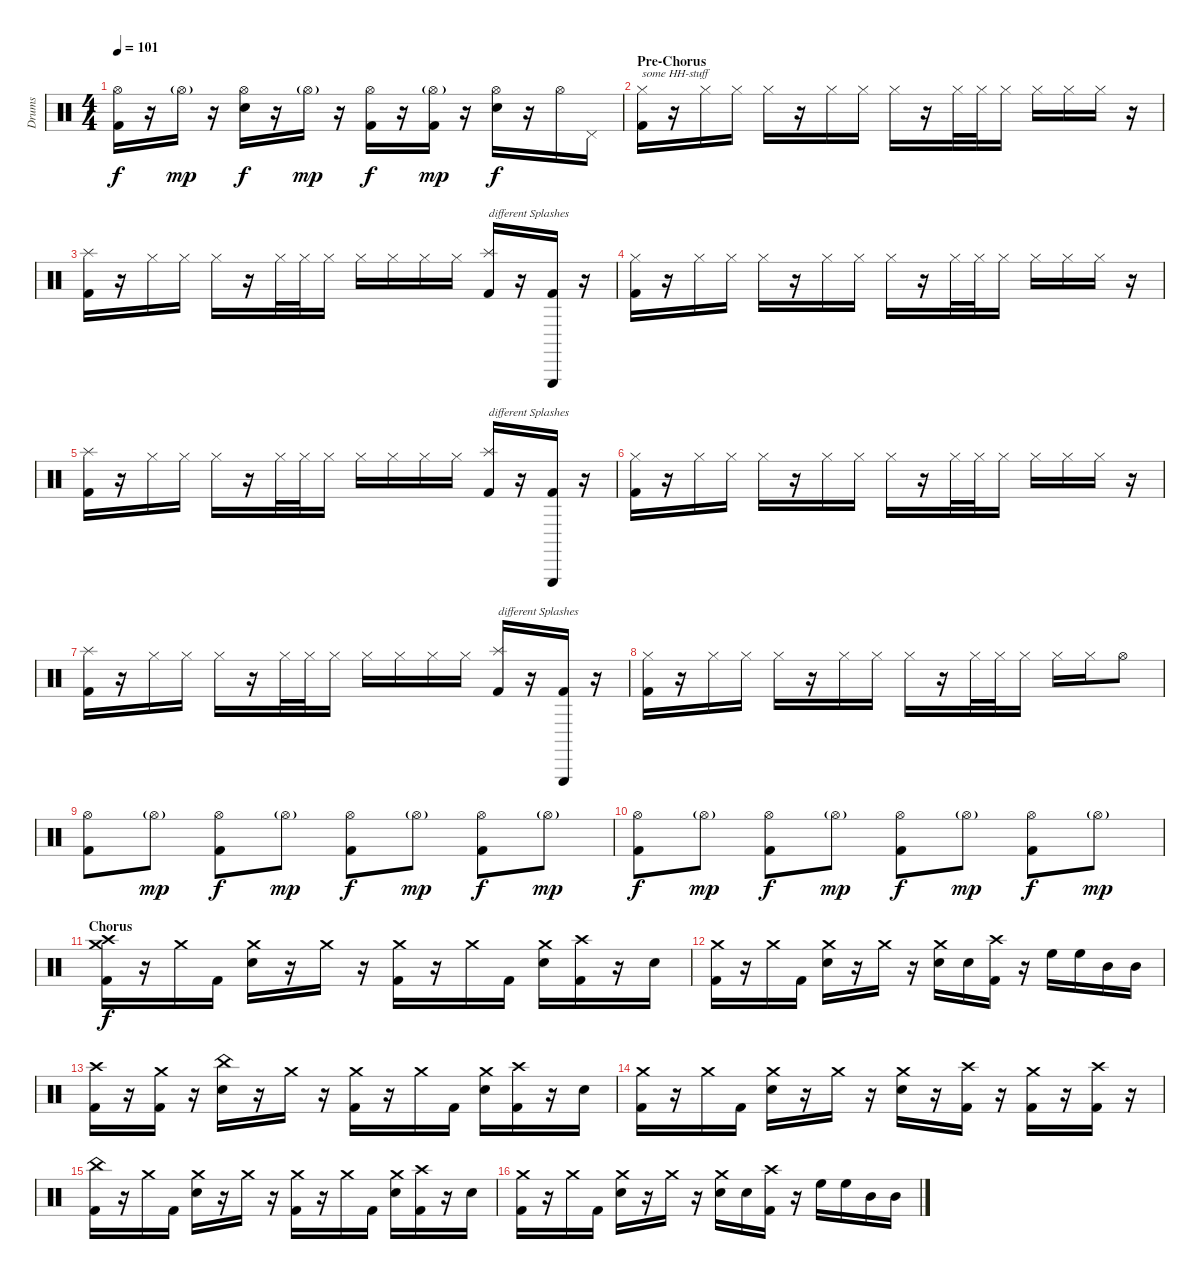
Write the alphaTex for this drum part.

\track ("Drums" "Drums") {instrument percussion}
\staff {score}
\articulation defaults
\ts (4 4)
\tempo 101
\clef neutral
\ks c
("Hi-Hat (open)" "Kick (hit) 2").16{dy f} r.16 "Hi-Hat (open)"{g}.16{dy mp} r.16 ("Hi-Hat (open)" "Electric Snare (hit)").16{dy f} r.16 "Hi-Hat (open)"{g}.16{dy mp} r.16 ("Hi-Hat (open)" "Kick (hit) 2").16{dy f} r.16 ("Hi-Hat (open)"{g} "Kick (hit) 2").16{dy mp} r.16 ("Hi-Hat (open)" "Electric Snare (hit)").16{dy f} r.16 "Hi-Hat (open)".16 "Pedal Hi-Hat (hit)".16 |
\section ("" "Pre-Chorus")
("Hi-Hat (closed)" "Kick (hit) 2").16{txt "some HH-stuff"} r.16 "Hi-Hat (closed)".16 "Hi-Hat (closed)".16 "Hi-Hat (closed)".16 r.16 "Hi-Hat (closed)".16 "Hi-Hat (closed)".16 "Hi-Hat (closed)".16 r.16 "Hi-Hat (closed)".32 "Hi-Hat (closed)".32 "Hi-Hat (closed)".16 "Hi-Hat (closed)".16 "Hi-Hat (closed)".16 "Hi-Hat (closed)".16 r.16 |
("Splash (hit)" "Kick (hit) 2").16 r.16 "Hi-Hat (closed)".16 "Hi-Hat (closed)".16 "Hi-Hat (closed)".16 r.16 "Hi-Hat (closed)".32 "Hi-Hat (closed)".32 "Hi-Hat (closed)".16 "Hi-Hat (closed)".16 "Hi-Hat (closed)".16 "Hi-Hat (closed)".16 "Hi-Hat (closed)".16 ("Splash (hit)" "Kick (hit) 2").16{txt "different Splashes"} r.16 ("Triangle (hit)" "Kick (hit) 2").16 r.16 |
("Hi-Hat (closed)" "Kick (hit) 2").16 r.16 "Hi-Hat (closed)".16 "Hi-Hat (closed)".16 "Hi-Hat (closed)".16 r.16 "Hi-Hat (closed)".16 "Hi-Hat (closed)".16 "Hi-Hat (closed)".16 r.16 "Hi-Hat (closed)".32 "Hi-Hat (closed)".32 "Hi-Hat (closed)".16 "Hi-Hat (closed)".16 "Hi-Hat (closed)".16 "Hi-Hat (closed)".16 r.16 |
("Splash (hit)" "Kick (hit) 2").16 r.16 "Hi-Hat (closed)".16 "Hi-Hat (closed)".16 "Hi-Hat (closed)".16 r.16 "Hi-Hat (closed)".32 "Hi-Hat (closed)".32 "Hi-Hat (closed)".16 "Hi-Hat (closed)".16 "Hi-Hat (closed)".16 "Hi-Hat (closed)".16 "Hi-Hat (closed)".16 ("Splash (hit)" "Kick (hit) 2").16{txt "different Splashes"} r.16 ("Triangle (hit)" "Kick (hit) 2").16 r.16 |
("Hi-Hat (closed)" "Kick (hit) 2").16 r.16 "Hi-Hat (closed)".16 "Hi-Hat (closed)".16 "Hi-Hat (closed)".16 r.16 "Hi-Hat (closed)".16 "Hi-Hat (closed)".16 "Hi-Hat (closed)".16 r.16 "Hi-Hat (closed)".32 "Hi-Hat (closed)".32 "Hi-Hat (closed)".16 "Hi-Hat (closed)".16 "Hi-Hat (closed)".16 "Hi-Hat (closed)".16 r.16 |
("Splash (hit)" "Kick (hit) 2").16 r.16 "Hi-Hat (closed)".16 "Hi-Hat (closed)".16 "Hi-Hat (closed)".16 r.16 "Hi-Hat (closed)".32 "Hi-Hat (closed)".32 "Hi-Hat (closed)".16 "Hi-Hat (closed)".16 "Hi-Hat (closed)".16 "Hi-Hat (closed)".16 "Hi-Hat (closed)".16 ("Splash (hit)" "Kick (hit) 2").16{txt "different Splashes"} r.16 ("Triangle (hit)" "Kick (hit) 2").16 r.16 |
("Hi-Hat (closed)" "Kick (hit) 2").16 r.16 "Hi-Hat (closed)".16 "Hi-Hat (closed)".16 "Hi-Hat (closed)".16 r.16 "Hi-Hat (closed)".16 "Hi-Hat (closed)".16 "Hi-Hat (closed)".16 r.16 "Hi-Hat (closed)".32 "Hi-Hat (closed)".32 "Hi-Hat (closed)".16 "Hi-Hat (closed)".16 "Hi-Hat (closed)".16 "Hi-Hat (open)".8 |
("Hi-Hat (open)" "Kick (hit) 2").8 "Hi-Hat (open)"{g}.8{dy mp} ("Hi-Hat (open)" "Kick (hit) 2").8{dy f} "Hi-Hat (open)"{g}.8{dy mp} ("Hi-Hat (open)" "Kick (hit) 2").8{dy f} "Hi-Hat (open)"{g}.8{dy mp} ("Hi-Hat (open)" "Kick (hit) 2").8{dy f} "Hi-Hat (open)"{g}.8{dy mp} |
("Hi-Hat (open)" "Kick (hit) 2").8{dy f} "Hi-Hat (open)"{g}.8{dy mp} ("Hi-Hat (open)" "Kick (hit) 2").8{dy f} "Hi-Hat (open)"{g}.8{dy mp} ("Hi-Hat (open)" "Kick (hit) 2").8{dy f} "Hi-Hat (open)"{g}.8{dy mp} ("Hi-Hat (open)" "Kick (hit) 2").8{dy f} "Hi-Hat (open)"{g}.8{dy mp} |
\section ("" "Chorus")
("Crash high (hit)" "Crash medium (hit)" "Kick (hit) 2").16{dy f} r.16 "Crash medium (hit)".16 "Kick (hit) 2".16 ("Crash medium (hit)" "Electric Snare (hit)").16 r.16 "Crash medium (hit)".16 r.16 ("Crash medium (hit)" "Kick (hit) 2").16 r.16 "Crash medium (hit)".16 "Kick (hit) 2".16 ("Crash medium (hit)" "Electric Snare (hit)").16 ("Crash high (hit)" "Kick (hit) 2").16 r.16 "Electric Snare (hit)".16 |
("Crash medium (hit)" "Kick (hit) 2").16 r.16 "Crash medium (hit)".16 "Kick (hit) 2".16 ("Crash medium (hit)" "Electric Snare (hit)").16 r.16 "Crash medium (hit)".16 r.16 ("Crash medium (hit)" "Electric Snare (hit)").16 "Electric Snare (hit)".16 ("Crash high (hit)" "Kick (hit) 2").16 r.16 "High Floor Tom (hit)".16 "High Floor Tom (hit)".16 "Mid Tom (hit)".16 "Mid Tom (hit)".16 |
("Crash high (hit)" "Kick (hit) 2").16 r.16 ("Crash medium (hit)" "Kick (hit) 2").16 r.16 ("China (hit)" "Electric Snare (hit)").16 r.16 "Crash medium (hit)".16 r.16 ("Crash medium (hit)" "Kick (hit) 2").16 r.16 "Crash medium (hit)".16 "Kick (hit) 2".16 ("Crash medium (hit)" "Electric Snare (hit)").16 ("Crash high (hit)" "Kick (hit) 2").16 r.16 "Electric Snare (hit)".16 |
("Crash medium (hit)" "Kick (hit) 2").16 r.16 "Crash medium (hit)".16 "Kick (hit) 2".16 ("Crash medium (hit)" "Electric Snare (hit)").16 r.16 "Crash medium (hit)".16 r.16 ("Crash medium (hit)" "Electric Snare (hit)").16 r.16 ("Crash high (hit)" "Kick (hit) 2").16 r.16 ("Crash medium (hit)" "Kick (hit) 2").16 r.16 ("Crash high (hit)" "Kick (hit) 2").16 r.16 |
("China (hit)" "Kick (hit) 2").16 r.16 "Crash medium (hit)".16 "Kick (hit) 2".16 ("Crash medium (hit)" "Electric Snare (hit)").16 r.16 "Crash medium (hit)".16 r.16 ("Crash medium (hit)" "Kick (hit) 2").16 r.16 "Crash medium (hit)".16 "Kick (hit) 2".16 ("Crash medium (hit)" "Electric Snare (hit)").16 ("Crash high (hit)" "Kick (hit) 2").16 r.16 "Electric Snare (hit)".16 |
("Crash medium (hit)" "Kick (hit) 2").16 r.16 "Crash medium (hit)".16 "Kick (hit) 2".16 ("Crash medium (hit)" "Electric Snare (hit)").16 r.16 "Crash medium (hit)".16 r.16 ("Crash medium (hit)" "Electric Snare (hit)").16 "Electric Snare (hit)".16 ("Crash high (hit)" "Kick (hit) 2").16 r.16 "High Floor Tom (hit)".16 "High Floor Tom (hit)".16 "Mid Tom (hit)".16 "Mid Tom (hit)".16
